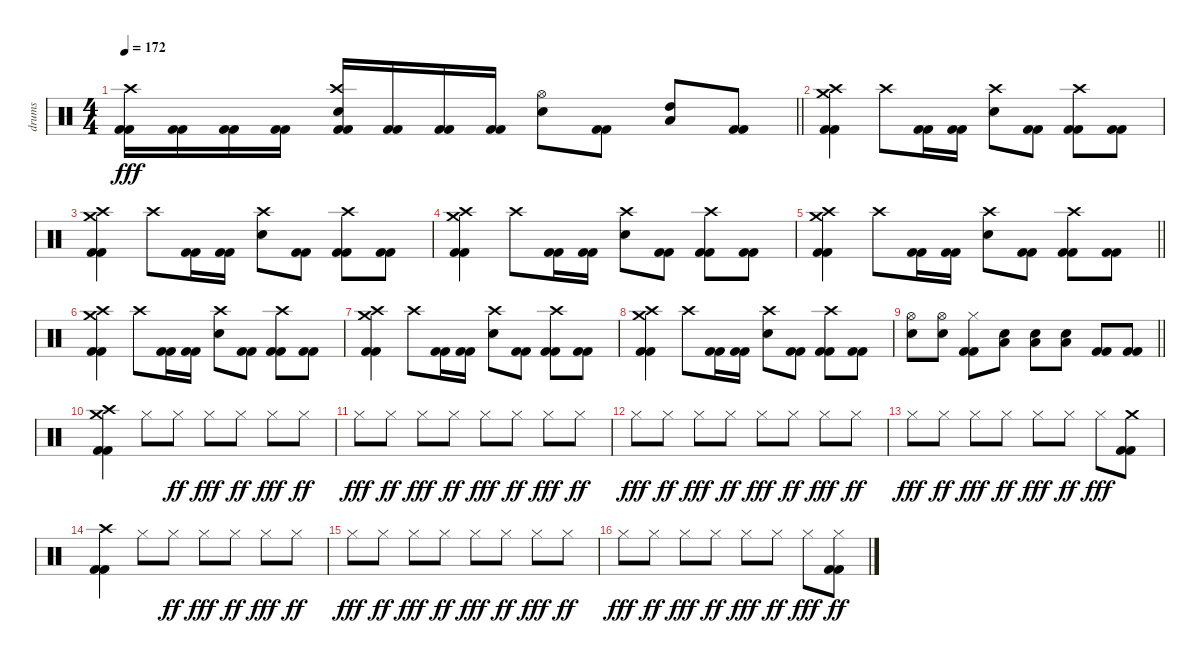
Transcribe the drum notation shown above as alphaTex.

\track ("drums" "drums") {instrument percussion}
\staff {score}
\articulation defaults
\ts (4 4)
\tempo 172
\clef neutral
\barLineRight lightlight
\ks c
("Kick (hit) 2" "Kick (hit) 2" "Crash high (hit)").16{dy fff} ("Kick (hit) 2" "Kick (hit) 2").16 ("Kick (hit) 2" "Kick (hit) 2").16 ("Kick (hit) 2" "Kick (hit) 2").16 ("Kick (hit) 2" "Kick (hit) 2" "Electric Snare (hit)" "Crash high (hit)").16 ("Kick (hit) 2" "Kick (hit) 2").16 ("Kick (hit) 2" "Kick (hit) 2").16 ("Kick (hit) 2" "Kick (hit) 2").16 ("Electric Snare (hit)" "Hi-Hat (open)").8 ("Kick (hit) 2" "Kick (hit) 2").8 ("Low Floor Tom (hit)" "High Tom (hit)").8 ("Kick (hit) 2" "Kick (hit) 2").8 |
("Kick (hit) 2" "Kick (hit) 2" "Crash medium (hit)" "Crash high (hit)").4 "Crash high (hit)".8 ("Kick (hit) 2" "Kick (hit) 2").16 ("Kick (hit) 2" "Kick (hit) 2").16 ("Electric Snare (hit)" "Crash high (hit)").8 ("Kick (hit) 2" "Kick (hit) 2").8 ("Kick (hit) 2" "Kick (hit) 2" "Crash high (hit)").8 ("Kick (hit) 2" "Kick (hit) 2").8 |
("Kick (hit) 2" "Kick (hit) 2" "Crash medium (hit)" "Crash high (hit)").4 "Crash high (hit)".8 ("Kick (hit) 2" "Kick (hit) 2").16 ("Kick (hit) 2" "Kick (hit) 2").16 ("Electric Snare (hit)" "Crash high (hit)").8 ("Kick (hit) 2" "Kick (hit) 2").8 ("Kick (hit) 2" "Kick (hit) 2" "Crash high (hit)").8 ("Kick (hit) 2" "Kick (hit) 2").8 |
("Kick (hit) 2" "Kick (hit) 2" "Crash medium (hit)" "Crash high (hit)").4 "Crash high (hit)".8 ("Kick (hit) 2" "Kick (hit) 2").16 ("Kick (hit) 2" "Kick (hit) 2").16 ("Electric Snare (hit)" "Crash high (hit)").8 ("Kick (hit) 2" "Kick (hit) 2").8 ("Kick (hit) 2" "Kick (hit) 2" "Crash high (hit)").8 ("Kick (hit) 2" "Kick (hit) 2").8 |
\barLineRight lightlight
("Kick (hit) 2" "Kick (hit) 2" "Crash medium (hit)" "Crash high (hit)").4 "Crash high (hit)".8 ("Kick (hit) 2" "Kick (hit) 2").16 ("Kick (hit) 2" "Kick (hit) 2").16 ("Electric Snare (hit)" "Crash high (hit)").8 ("Kick (hit) 2" "Kick (hit) 2").8 ("Kick (hit) 2" "Kick (hit) 2" "Crash high (hit)").8 ("Kick (hit) 2" "Kick (hit) 2").8 |
("Kick (hit) 2" "Kick (hit) 2" "Crash medium (hit)" "Crash high (hit)").4 "Crash high (hit)".8 ("Kick (hit) 2" "Kick (hit) 2").16 ("Kick (hit) 2" "Kick (hit) 2").16 ("Electric Snare (hit)" "Crash high (hit)").8 ("Kick (hit) 2" "Kick (hit) 2").8 ("Kick (hit) 2" "Kick (hit) 2" "Crash high (hit)").8 ("Kick (hit) 2" "Kick (hit) 2").8 |
("Kick (hit) 2" "Kick (hit) 2" "Crash medium (hit)" "Crash high (hit)").4 "Crash high (hit)".8 ("Kick (hit) 2" "Kick (hit) 2").16 ("Kick (hit) 2" "Kick (hit) 2").16 ("Electric Snare (hit)" "Crash high (hit)").8 ("Kick (hit) 2" "Kick (hit) 2").8 ("Kick (hit) 2" "Kick (hit) 2" "Crash high (hit)").8 ("Kick (hit) 2" "Kick (hit) 2").8 |
("Kick (hit) 2" "Kick (hit) 2" "Crash medium (hit)" "Crash high (hit)").4 "Crash high (hit)".8 ("Kick (hit) 2" "Kick (hit) 2").16 ("Kick (hit) 2" "Kick (hit) 2").16 ("Electric Snare (hit)" "Crash high (hit)").8 ("Kick (hit) 2" "Kick (hit) 2").8 ("Kick (hit) 2" "Kick (hit) 2" "Crash high (hit)").8 ("Kick (hit) 2" "Kick (hit) 2").8 |
\barLineRight lightlight
("Electric Snare (hit)" "Hi-Hat (open)").8 ("Electric Snare (hit)" "Hi-Hat (open)").8 ("Kick (hit) 2" "Kick (hit) 2" "Hi-Hat (closed)").8 ("Electric Snare (hit)" "Low Floor Tom (hit)").8 ("Electric Snare (hit)" "Low Floor Tom (hit)").8 ("Electric Snare (hit)" "Low Floor Tom (hit)").8 ("Kick (hit) 2" "Kick (hit) 2").8 ("Kick (hit) 2" "Kick (hit) 2").8 |
("Kick (hit) 2" "Kick (hit) 2" "Crash medium (hit)" "Crash high (hit)").4 "Hi-Hat (closed)".8 "Hi-Hat (closed)".8{dy ff} "Hi-Hat (closed)".8{dy fff} "Hi-Hat (closed)".8{dy ff} "Hi-Hat (closed)".8{dy fff} "Hi-Hat (closed)".8{dy ff} |
"Hi-Hat (closed)".8{dy fff} "Hi-Hat (closed)".8{dy ff} "Hi-Hat (closed)".8{dy fff} "Hi-Hat (closed)".8{dy ff} "Hi-Hat (closed)".8{dy fff} "Hi-Hat (closed)".8{dy ff} "Hi-Hat (closed)".8{dy fff} "Hi-Hat (closed)".8{dy ff} |
"Hi-Hat (closed)".8{dy fff} "Hi-Hat (closed)".8{dy ff} "Hi-Hat (closed)".8{dy fff} "Hi-Hat (closed)".8{dy ff} "Hi-Hat (closed)".8{dy fff} "Hi-Hat (closed)".8{dy ff} "Hi-Hat (closed)".8{dy fff} "Hi-Hat (closed)".8{dy ff} |
"Hi-Hat (closed)".8{dy fff} "Hi-Hat (closed)".8{dy ff} "Hi-Hat (closed)".8{dy fff} "Hi-Hat (closed)".8{dy ff} "Hi-Hat (closed)".8{dy fff} "Hi-Hat (closed)".8{dy ff} "Hi-Hat (closed)".8{dy fff} ("Kick (hit) 2" "Kick (hit) 2" "Crash medium (hit)").8 |
("Kick (hit) 2" "Kick (hit) 2" "Crash high (hit)").4 "Hi-Hat (closed)".8 "Hi-Hat (closed)".8{dy ff} "Hi-Hat (closed)".8{dy fff} "Hi-Hat (closed)".8{dy ff} "Hi-Hat (closed)".8{dy fff} "Hi-Hat (closed)".8{dy ff} |
"Hi-Hat (closed)".8{dy fff} "Hi-Hat (closed)".8{dy ff} "Hi-Hat (closed)".8{dy fff} "Hi-Hat (closed)".8{dy ff} "Hi-Hat (closed)".8{dy fff} "Hi-Hat (closed)".8{dy ff} "Hi-Hat (closed)".8{dy fff} "Hi-Hat (closed)".8{dy ff} |
"Hi-Hat (closed)".8{dy fff} "Hi-Hat (closed)".8{dy ff} "Hi-Hat (closed)".8{dy fff} "Hi-Hat (closed)".8{dy ff} "Hi-Hat (closed)".8{dy fff} "Hi-Hat (closed)".8{dy ff} "Hi-Hat (closed)".8{dy fff} ("Kick (hit) 2" "Kick (hit) 2" "Hi-Hat (closed)").8{dy ff}
